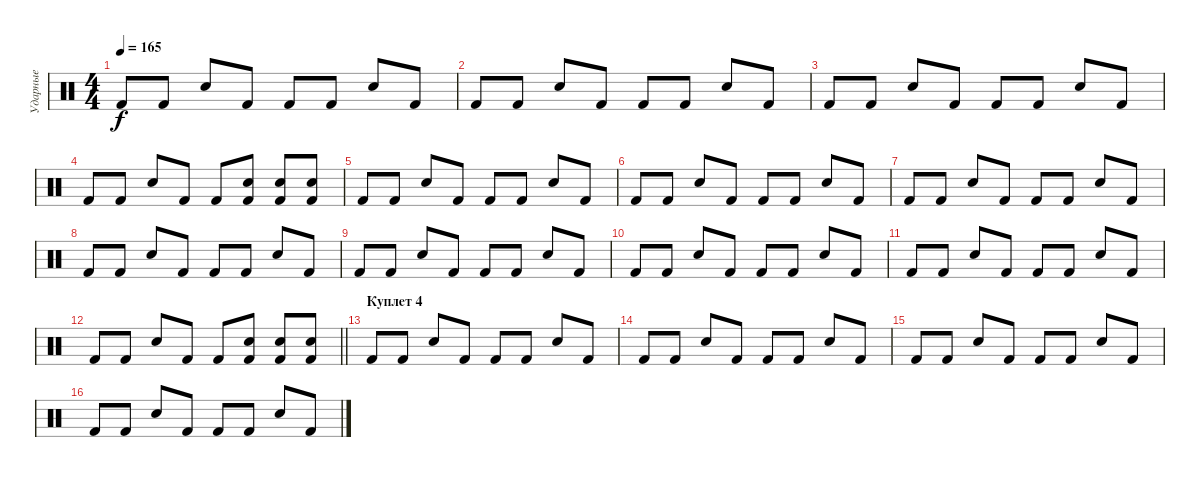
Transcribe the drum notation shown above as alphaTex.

\track ("Ударные" "Ударные") {instrument percussion}
\staff {score}
\articulation defaults
\ts (4 4)
\tempo 165
\clef neutral
\ks c "Kick (hit) 2".8{dy f} "Kick (hit) 2".8 "Snare (hit) 2".8 "Kick (hit) 2".8 "Kick (hit) 2".8 "Kick (hit) 2".8 "Snare (hit) 2".8 "Kick (hit) 2".8
|
"Kick (hit) 2".8 "Kick (hit) 2".8 "Snare (hit) 2".8 "Kick (hit) 2".8 "Kick (hit) 2".8 "Kick (hit) 2".8 "Snare (hit) 2".8 "Kick (hit) 2".8 |
"Kick (hit) 2".8 "Kick (hit) 2".8 "Snare (hit) 2".8 "Kick (hit) 2".8 "Kick (hit) 2".8 "Kick (hit) 2".8 "Snare (hit) 2".8 "Kick (hit) 2".8 |
"Kick (hit) 2".8 "Kick (hit) 2".8 "Snare (hit) 2".8 "Kick (hit) 2".8 "Kick (hit) 2".8 ("Kick (hit) 2" "Snare (hit) 2").8 ("Kick (hit) 2" "Snare (hit) 2").8 ("Kick (hit) 2" "Snare (hit) 2").8 |
"Kick (hit) 2".8 "Kick (hit) 2".8 "Snare (hit) 2".8 "Kick (hit) 2".8 "Kick (hit) 2".8 "Kick (hit) 2".8 "Snare (hit) 2".8 "Kick (hit) 2".8 |
"Kick (hit) 2".8 "Kick (hit) 2".8 "Snare (hit) 2".8 "Kick (hit) 2".8 "Kick (hit) 2".8 "Kick (hit) 2".8 "Snare (hit) 2".8 "Kick (hit) 2".8 |
"Kick (hit) 2".8 "Kick (hit) 2".8 "Snare (hit) 2".8 "Kick (hit) 2".8 "Kick (hit) 2".8 "Kick (hit) 2".8 "Snare (hit) 2".8 "Kick (hit) 2".8 |
"Kick (hit) 2".8 "Kick (hit) 2".8 "Snare (hit) 2".8 "Kick (hit) 2".8 "Kick (hit) 2".8 "Kick (hit) 2".8 "Snare (hit) 2".8 "Kick (hit) 2".8 |
"Kick (hit) 2".8 "Kick (hit) 2".8 "Snare (hit) 2".8 "Kick (hit) 2".8 "Kick (hit) 2".8 "Kick (hit) 2".8 "Snare (hit) 2".8 "Kick (hit) 2".8 |
"Kick (hit) 2".8 "Kick (hit) 2".8 "Snare (hit) 2".8 "Kick (hit) 2".8 "Kick (hit) 2".8 "Kick (hit) 2".8 "Snare (hit) 2".8 "Kick (hit) 2".8 |
"Kick (hit) 2".8 "Kick (hit) 2".8 "Snare (hit) 2".8 "Kick (hit) 2".8 "Kick (hit) 2".8 "Kick (hit) 2".8 "Snare (hit) 2".8 "Kick (hit) 2".8 |
\barLineRight lightlight "Kick (hit) 2".8 "Kick (hit) 2".8 "Snare (hit) 2".8 "Kick (hit) 2".8 "Kick (hit) 2".8
("Kick (hit) 2" "Snare (hit) 2").8 ("Kick (hit) 2" "Snare (hit) 2").8 ("Kick (hit) 2" "Snare (hit) 2").8 |
\section ("" "Куплет 4")
"Kick (hit) 2".8 "Kick (hit) 2".8 "Snare (hit) 2".8 "Kick (hit) 2".8 "Kick (hit) 2".8 "Kick (hit) 2".8 "Snare (hit) 2".8 "Kick (hit) 2".8 |
"Kick (hit) 2".8 "Kick (hit) 2".8 "Snare (hit) 2".8 "Kick (hit) 2".8 "Kick (hit) 2".8 "Kick (hit) 2".8 "Snare (hit) 2".8 "Kick (hit) 2".8 |
"Kick (hit) 2".8 "Kick (hit) 2".8 "Snare (hit) 2".8 "Kick (hit) 2".8 "Kick (hit) 2".8 "Kick (hit) 2".8 "Snare (hit) 2".8 "Kick (hit) 2".8 |
"Kick (hit) 2".8 "Kick (hit) 2".8 "Snare (hit) 2".8 "Kick (hit) 2".8 "Kick (hit) 2".8 "Kick (hit) 2".8 "Snare (hit) 2".8 "Kick (hit) 2".8
